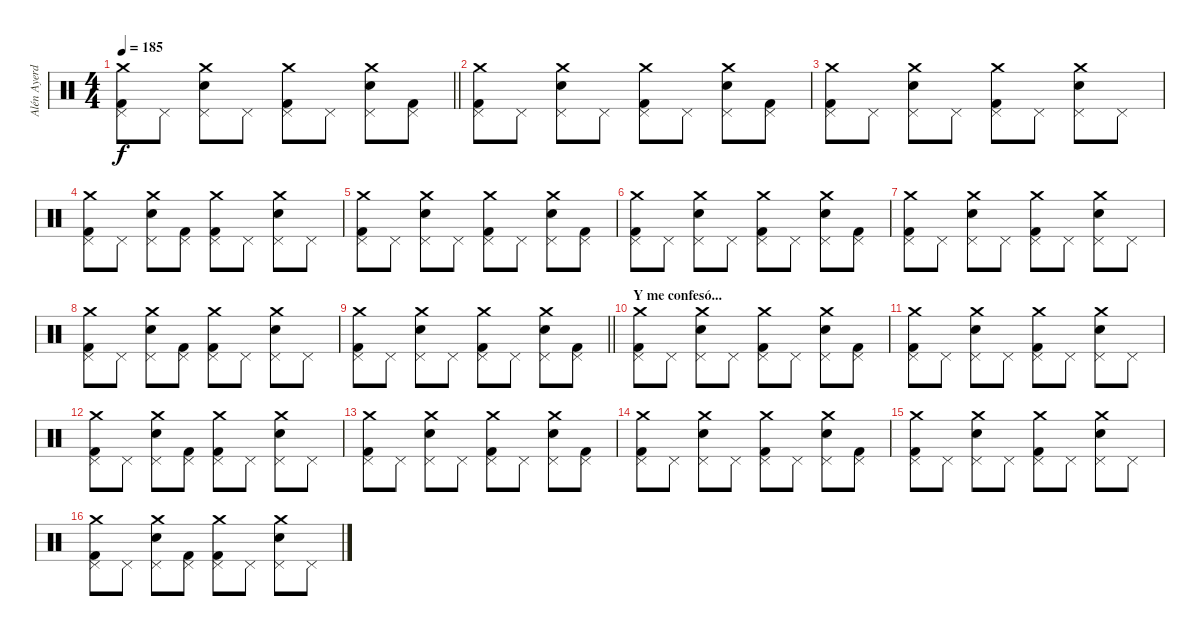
\track ("Alén Ayerdi - Batería" "Alén Ayerd") {instrument percussion}
\staff {score}
\articulation defaults
\ts (4 4)
\tempo 185
\clef neutral
\barLineRight lightlight
\ks c
("Crash medium (hit)" "Pedal Hi-Hat (hit)" "Kick (hit) 2").8{dy f} "Pedal Hi-Hat (hit)".8 ("Crash medium (hit)" "Pedal Hi-Hat (hit)" "Electric Snare (hit)").8 "Pedal Hi-Hat (hit)".8 ("Crash medium (hit)" "Pedal Hi-Hat (hit)" "Kick (hit) 2").8 "Pedal Hi-Hat (hit)".8 ("Crash medium (hit)" "Pedal Hi-Hat (hit)" "Electric Snare (hit)").8 ("Pedal Hi-Hat (hit)" "Kick (hit) 2").8 |
\section ("" "")
("Crash medium (hit)" "Pedal Hi-Hat (hit)" "Kick (hit) 2").8 "Pedal Hi-Hat (hit)".8 ("Crash medium (hit)" "Pedal Hi-Hat (hit)" "Electric Snare (hit)").8 "Pedal Hi-Hat (hit)".8 ("Crash medium (hit)" "Pedal Hi-Hat (hit)" "Kick (hit) 2").8 "Pedal Hi-Hat (hit)".8 ("Crash medium (hit)" "Pedal Hi-Hat (hit)" "Electric Snare (hit)").8 ("Pedal Hi-Hat (hit)" "Kick (hit) 2").8 |
("Crash medium (hit)" "Pedal Hi-Hat (hit)" "Kick (hit) 2").8 "Pedal Hi-Hat (hit)".8 ("Crash medium (hit)" "Pedal Hi-Hat (hit)" "Electric Snare (hit)").8 "Pedal Hi-Hat (hit)".8 ("Crash medium (hit)" "Pedal Hi-Hat (hit)" "Kick (hit) 2").8 "Pedal Hi-Hat (hit)".8 ("Crash medium (hit)" "Pedal Hi-Hat (hit)" "Electric Snare (hit)").8 "Pedal Hi-Hat (hit)".8 |
("Crash medium (hit)" "Pedal Hi-Hat (hit)" "Kick (hit) 2").8 "Pedal Hi-Hat (hit)".8 ("Crash medium (hit)" "Pedal Hi-Hat (hit)" "Electric Snare (hit)").8 ("Pedal Hi-Hat (hit)" "Kick (hit) 2").8 ("Crash medium (hit)" "Pedal Hi-Hat (hit)" "Kick (hit) 2").8 "Pedal Hi-Hat (hit)".8 ("Crash medium (hit)" "Pedal Hi-Hat (hit)" "Electric Snare (hit)").8 "Pedal Hi-Hat (hit)".8 |
("Crash medium (hit)" "Pedal Hi-Hat (hit)" "Kick (hit) 2").8 "Pedal Hi-Hat (hit)".8 ("Crash medium (hit)" "Pedal Hi-Hat (hit)" "Electric Snare (hit)").8 "Pedal Hi-Hat (hit)".8 ("Crash medium (hit)" "Pedal Hi-Hat (hit)" "Kick (hit) 2").8 "Pedal Hi-Hat (hit)".8 ("Crash medium (hit)" "Pedal Hi-Hat (hit)" "Electric Snare (hit)").8 ("Pedal Hi-Hat (hit)" "Kick (hit) 2").8 |
("Crash medium (hit)" "Pedal Hi-Hat (hit)" "Kick (hit) 2").8 "Pedal Hi-Hat (hit)".8 ("Crash medium (hit)" "Pedal Hi-Hat (hit)" "Electric Snare (hit)").8 "Pedal Hi-Hat (hit)".8 ("Crash medium (hit)" "Pedal Hi-Hat (hit)" "Kick (hit) 2").8 "Pedal Hi-Hat (hit)".8 ("Crash medium (hit)" "Pedal Hi-Hat (hit)" "Electric Snare (hit)").8 ("Pedal Hi-Hat (hit)" "Kick (hit) 2").8 |
("Crash medium (hit)" "Pedal Hi-Hat (hit)" "Kick (hit) 2").8 "Pedal Hi-Hat (hit)".8 ("Crash medium (hit)" "Pedal Hi-Hat (hit)" "Electric Snare (hit)").8 "Pedal Hi-Hat (hit)".8 ("Crash medium (hit)" "Pedal Hi-Hat (hit)" "Kick (hit) 2").8 "Pedal Hi-Hat (hit)".8 ("Crash medium (hit)" "Pedal Hi-Hat (hit)" "Electric Snare (hit)").8 "Pedal Hi-Hat (hit)".8 |
("Crash medium (hit)" "Pedal Hi-Hat (hit)" "Kick (hit) 2").8 "Pedal Hi-Hat (hit)".8 ("Crash medium (hit)" "Pedal Hi-Hat (hit)" "Electric Snare (hit)").8 ("Pedal Hi-Hat (hit)" "Kick (hit) 2").8 ("Crash medium (hit)" "Pedal Hi-Hat (hit)" "Kick (hit) 2").8 "Pedal Hi-Hat (hit)".8 ("Crash medium (hit)" "Pedal Hi-Hat (hit)" "Electric Snare (hit)").8 "Pedal Hi-Hat (hit)".8 |
\barLineRight lightlight
("Crash medium (hit)" "Pedal Hi-Hat (hit)" "Kick (hit) 2").8 "Pedal Hi-Hat (hit)".8 ("Crash medium (hit)" "Pedal Hi-Hat (hit)" "Electric Snare (hit)").8 "Pedal Hi-Hat (hit)".8 ("Crash medium (hit)" "Pedal Hi-Hat (hit)" "Kick (hit) 2").8 "Pedal Hi-Hat (hit)".8 ("Crash medium (hit)" "Pedal Hi-Hat (hit)" "Electric Snare (hit)").8 ("Pedal Hi-Hat (hit)" "Kick (hit) 2").8 |
\section ("" "Y me confesó...")
("Crash medium (hit)" "Pedal Hi-Hat (hit)" "Kick (hit) 2").8 "Pedal Hi-Hat (hit)".8 ("Crash medium (hit)" "Pedal Hi-Hat (hit)" "Electric Snare (hit)").8 "Pedal Hi-Hat (hit)".8 ("Crash medium (hit)" "Pedal Hi-Hat (hit)" "Kick (hit) 2").8 "Pedal Hi-Hat (hit)".8 ("Crash medium (hit)" "Pedal Hi-Hat (hit)" "Electric Snare (hit)").8 ("Pedal Hi-Hat (hit)" "Kick (hit) 2").8 |
("Crash medium (hit)" "Pedal Hi-Hat (hit)" "Kick (hit) 2").8 "Pedal Hi-Hat (hit)".8 ("Crash medium (hit)" "Pedal Hi-Hat (hit)" "Electric Snare (hit)").8 "Pedal Hi-Hat (hit)".8 ("Crash medium (hit)" "Pedal Hi-Hat (hit)" "Kick (hit) 2").8 "Pedal Hi-Hat (hit)".8 ("Crash medium (hit)" "Pedal Hi-Hat (hit)" "Electric Snare (hit)").8 "Pedal Hi-Hat (hit)".8 |
("Crash medium (hit)" "Pedal Hi-Hat (hit)" "Kick (hit) 2").8 "Pedal Hi-Hat (hit)".8 ("Crash medium (hit)" "Pedal Hi-Hat (hit)" "Electric Snare (hit)").8 ("Pedal Hi-Hat (hit)" "Kick (hit) 2").8 ("Crash medium (hit)" "Pedal Hi-Hat (hit)" "Kick (hit) 2").8 "Pedal Hi-Hat (hit)".8 ("Crash medium (hit)" "Pedal Hi-Hat (hit)" "Electric Snare (hit)").8 "Pedal Hi-Hat (hit)".8 |
("Crash medium (hit)" "Pedal Hi-Hat (hit)" "Kick (hit) 2").8 "Pedal Hi-Hat (hit)".8 ("Crash medium (hit)" "Pedal Hi-Hat (hit)" "Electric Snare (hit)").8 "Pedal Hi-Hat (hit)".8 ("Crash medium (hit)" "Pedal Hi-Hat (hit)" "Kick (hit) 2").8 "Pedal Hi-Hat (hit)".8 ("Crash medium (hit)" "Pedal Hi-Hat (hit)" "Electric Snare (hit)").8 ("Pedal Hi-Hat (hit)" "Kick (hit) 2").8 |
("Crash medium (hit)" "Pedal Hi-Hat (hit)" "Kick (hit) 2").8 "Pedal Hi-Hat (hit)".8 ("Crash medium (hit)" "Pedal Hi-Hat (hit)" "Electric Snare (hit)").8 "Pedal Hi-Hat (hit)".8 ("Crash medium (hit)" "Pedal Hi-Hat (hit)" "Kick (hit) 2").8 "Pedal Hi-Hat (hit)".8 ("Crash medium (hit)" "Pedal Hi-Hat (hit)" "Electric Snare (hit)").8 ("Pedal Hi-Hat (hit)" "Kick (hit) 2").8 |
("Crash medium (hit)" "Pedal Hi-Hat (hit)" "Kick (hit) 2").8 "Pedal Hi-Hat (hit)".8 ("Crash medium (hit)" "Pedal Hi-Hat (hit)" "Electric Snare (hit)").8 "Pedal Hi-Hat (hit)".8 ("Crash medium (hit)" "Pedal Hi-Hat (hit)" "Kick (hit) 2").8 "Pedal Hi-Hat (hit)".8 ("Crash medium (hit)" "Pedal Hi-Hat (hit)" "Electric Snare (hit)").8 "Pedal Hi-Hat (hit)".8 |
("Crash medium (hit)" "Pedal Hi-Hat (hit)" "Kick (hit) 2").8 "Pedal Hi-Hat (hit)".8 ("Crash medium (hit)" "Pedal Hi-Hat (hit)" "Electric Snare (hit)").8 ("Pedal Hi-Hat (hit)" "Kick (hit) 2").8 ("Crash medium (hit)" "Pedal Hi-Hat (hit)" "Kick (hit) 2").8 "Pedal Hi-Hat (hit)".8 ("Crash medium (hit)" "Pedal Hi-Hat (hit)" "Electric Snare (hit)").8 "Pedal Hi-Hat (hit)".8
